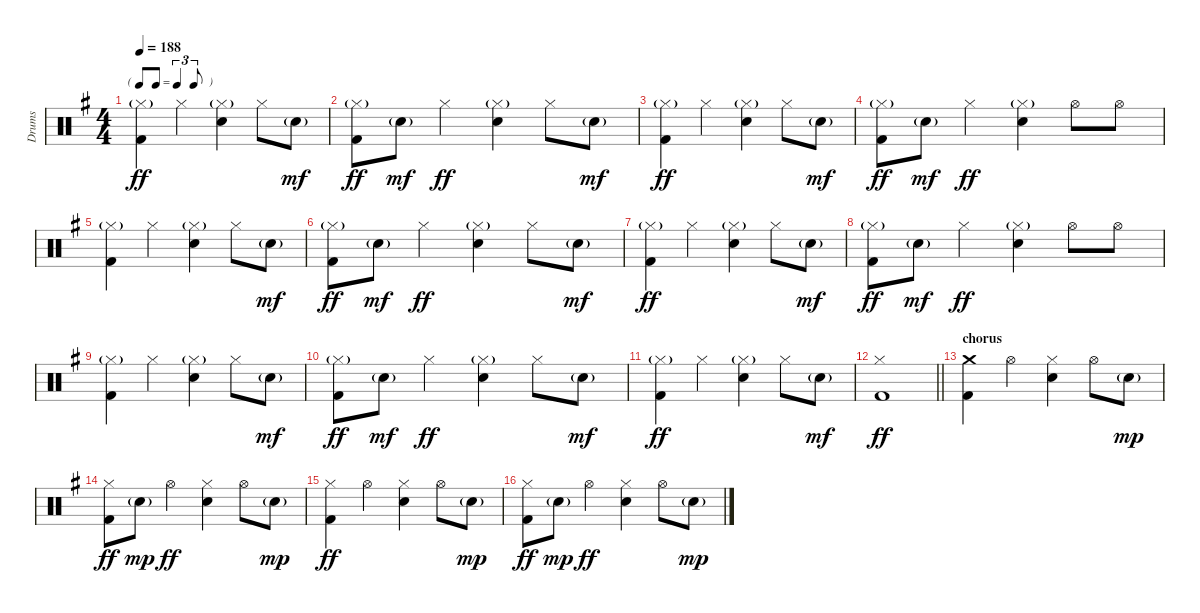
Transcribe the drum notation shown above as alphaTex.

\track ("Drums" "Drums") {instrument percussion}
\staff {score}
\articulation defaults
\ts (4 4)
\tf triplet8th
\tempo 188
\clef neutral
\ks g
("Hi-Hat (closed)"{g} "Kick (hit) 2").4{dy ff} "Hi-Hat (closed)".4 ("Hi-Hat (closed)"{g} "Snare (hit) 2").4 "Hi-Hat (closed)".8 "Snare (hit) 2"{g}.8{dy mf} |
("Hi-Hat (closed)"{g} "Kick (hit) 2").8{dy ff} "Snare (hit) 2"{g}.8{dy mf} "Hi-Hat (closed)".4{dy ff} ("Hi-Hat (closed)"{g} "Snare (hit) 2").4 "Hi-Hat (closed)".8 "Snare (hit) 2"{g}.8{dy mf} |
("Hi-Hat (closed)"{g} "Kick (hit) 2").4{dy ff} "Hi-Hat (closed)".4 ("Hi-Hat (closed)"{g} "Snare (hit) 2").4 "Hi-Hat (closed)".8 "Snare (hit) 2"{g}.8{dy mf} |
("Hi-Hat (closed)"{g} "Kick (hit) 2").8{dy ff} "Snare (hit) 2"{g}.8{dy mf} "Hi-Hat (closed)".4{dy ff} ("Hi-Hat (closed)"{g} "Snare (hit) 2").4 "Hi-Hat (open)".8 "Hi-Hat (open)".8 |
("Hi-Hat (closed)"{g} "Kick (hit) 2").4 "Hi-Hat (closed)".4 ("Hi-Hat (closed)"{g} "Snare (hit) 2").4 "Hi-Hat (closed)".8 "Snare (hit) 2"{g}.8{dy mf} |
("Hi-Hat (closed)"{g} "Kick (hit) 2").8{dy ff} "Snare (hit) 2"{g}.8{dy mf} "Hi-Hat (closed)".4{dy ff} ("Hi-Hat (closed)"{g} "Snare (hit) 2").4 "Hi-Hat (closed)".8 "Snare (hit) 2"{g}.8{dy mf} |
("Hi-Hat (closed)"{g} "Kick (hit) 2").4{dy ff} "Hi-Hat (closed)".4 ("Hi-Hat (closed)"{g} "Snare (hit) 2").4 "Hi-Hat (closed)".8 "Snare (hit) 2"{g}.8{dy mf} |
("Hi-Hat (closed)"{g} "Kick (hit) 2").8{dy ff} "Snare (hit) 2"{g}.8{dy mf} "Hi-Hat (closed)".4{dy ff} ("Hi-Hat (closed)"{g} "Snare (hit) 2").4 "Hi-Hat (open)".8 "Hi-Hat (open)".8 |
("Hi-Hat (closed)"{g} "Kick (hit) 2").4 "Hi-Hat (closed)".4 ("Hi-Hat (closed)"{g} "Snare (hit) 2").4 "Hi-Hat (closed)".8 "Snare (hit) 2"{g}.8{dy mf} |
("Hi-Hat (closed)"{g} "Kick (hit) 2").8{dy ff} "Snare (hit) 2"{g}.8{dy mf} "Hi-Hat (closed)".4{dy ff} ("Hi-Hat (closed)"{g} "Snare (hit) 2").4 "Hi-Hat (closed)".8 "Snare (hit) 2"{g}.8{dy mf} |
("Hi-Hat (closed)"{g} "Kick (hit) 2").4{dy ff} "Hi-Hat (closed)".4 ("Hi-Hat (closed)"{g} "Snare (hit) 2").4 "Hi-Hat (closed)".8 "Snare (hit) 2"{g}.8{dy mf} |
\barLineRight lightlight
("Hi-Hat (closed)" "Kick (hit) 2").1{dy ff} |
\section ("" "chorus")
("Crash medium (hit)" "Kick (hit) 2").4 "Hi-Hat (open)".4 ("Hi-Hat (closed)" "Snare (hit) 2").4 "Hi-Hat (open)".8 "Snare (hit) 2"{g}.8{dy mp} |
("Hi-Hat (closed)" "Kick (hit) 2").8{dy ff} "Snare (hit) 2"{g}.8{dy mp} "Hi-Hat (open)".4{dy ff} ("Hi-Hat (closed)" "Snare (hit) 2").4 "Hi-Hat (open)".8 "Snare (hit) 2"{g}.8{dy mp} |
("Hi-Hat (closed)" "Kick (hit) 2").4{dy ff} "Hi-Hat (open)".4 ("Hi-Hat (closed)" "Snare (hit) 2").4 "Hi-Hat (open)".8 "Snare (hit) 2"{g}.8{dy mp} |
("Hi-Hat (closed)" "Kick (hit) 2").8{dy ff} "Snare (hit) 2"{g}.8{dy mp} "Hi-Hat (open)".4{dy ff} ("Hi-Hat (closed)" "Snare (hit) 2").4 "Hi-Hat (open)".8 "Snare (hit) 2"{g}.8{dy mp}
